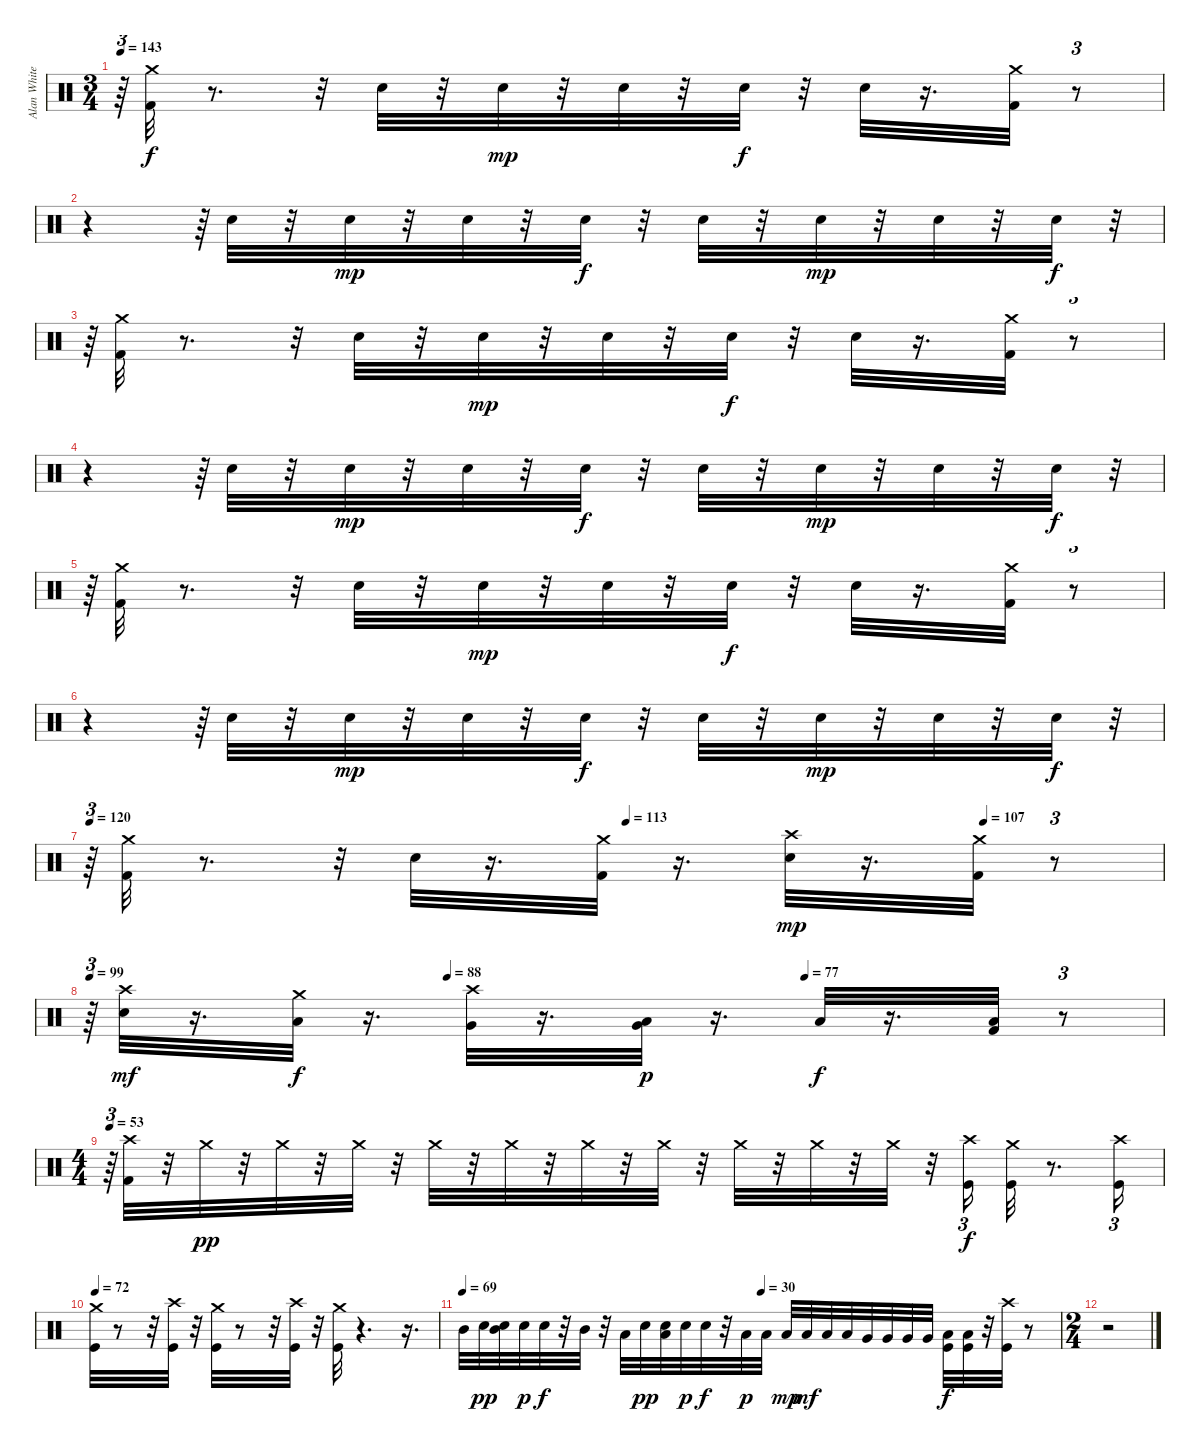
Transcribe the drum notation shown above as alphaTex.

\track ("Alan White" "Alan White") {instrument percussion}
\staff {score}
\articulation defaults
\ts (3 4)
\tempo 143
\clef neutral
\ks c
r.64{tu (3 2) dy f} ("Kick (hit) 2" "Crash medium (hit)").32 r.8{d} r.32 "Electric Snare (hit)".32 r.32 "Electric Snare (hit)".32{dy mp} r.32 "Electric Snare (hit)".32 r.32 "Electric Snare (hit)".32{dy f} r.32 "Electric Snare (hit)".32 r.16{d} ("Kick (hit) 2" "Crash medium (hit)").32 r.8{tu (3 2)} |
r.4 r.64{tu (3 2)} "Electric Snare (hit)".32 r.32 "Electric Snare (hit)".32{dy mp} r.32 "Electric Snare (hit)".32 r.32 "Electric Snare (hit)".32{dy f} r.32 "Electric Snare (hit)".32 r.32 "Electric Snare (hit)".32{dy mp} r.32 "Electric Snare (hit)".32 r.32 "Electric Snare (hit)".32{dy f} r.32{tu (3 2)} |
r.64{tu (3 2)} ("Kick (hit) 2" "Crash medium (hit)").32 r.8{d} r.32 "Electric Snare (hit)".32 r.32 "Electric Snare (hit)".32{dy mp} r.32 "Electric Snare (hit)".32 r.32 "Electric Snare (hit)".32{dy f} r.32 "Electric Snare (hit)".32 r.16{d} ("Kick (hit) 2" "Crash medium (hit)").32 r.8{tu (3 2)} |
r.4 r.64{tu (3 2)} "Electric Snare (hit)".32 r.32 "Electric Snare (hit)".32{dy mp} r.32 "Electric Snare (hit)".32 r.32 "Electric Snare (hit)".32{dy f} r.32 "Electric Snare (hit)".32 r.32 "Electric Snare (hit)".32{dy mp} r.32 "Electric Snare (hit)".32 r.32 "Electric Snare (hit)".32{dy f} r.32{tu (3 2)} |
r.64{tu (3 2)} ("Crash medium (hit)" "Kick (hit) 2").32 r.8{d} r.32 "Electric Snare (hit)".32 r.32 "Electric Snare (hit)".32{dy mp} r.32 "Electric Snare (hit)".32 r.32 "Electric Snare (hit)".32{dy f} r.32 "Electric Snare (hit)".32 r.16{d} ("Kick (hit) 2" "Crash medium (hit)").32 r.8{tu (3 2)} |
r.4 r.64{tu (3 2)} "Electric Snare (hit)".32 r.32 "Electric Snare (hit)".32{dy mp} r.32 "Electric Snare (hit)".32 r.32 "Electric Snare (hit)".32{dy f} r.32 "Electric Snare (hit)".32 r.32 "Electric Snare (hit)".32{dy mp} r.32 "Electric Snare (hit)".32 r.32 "Electric Snare (hit)".32{dy f} r.32{tu (3 2)} |
\tempo 120
\tempo (113 0.5)
\tempo (107 0.8333333333333334)
r.64{tu (3 2)} ("Kick (hit) 2" "Crash medium (hit)").32 r.8{d} r.32 "Electric Snare (hit)".32 r.16{d} ("Crash medium (hit)" "Kick (hit) 2").32 r.16{d} ("Crash high (hit)" "Electric Snare (hit)").32{dy mp} r.16{d} ("Kick (hit) 2" "Crash medium (hit)").32 r.8{tu (3 2)} |
\tempo 99
\tempo (88 0.3333333333333333)
\tempo (77 0.6666666666666666)
r.64{tu (3 2)} ("Crash high (hit)" "Electric Snare (hit)").32{dy mf} r.16{d} ("Crash medium (hit)" "Low Tom (hit)").32{dy f} r.16{d} ("Very Low Tom (hit)" "Crash high (hit)").32 r.16{d} ("Low Floor Tom (hit)" "Very Low Tom (hit)").32{dy p} r.16{d} "Low Floor Tom (hit)".32{dy f} r.16{d} ("Kick (hit) 2" "Low Floor Tom (hit)").32 r.8{tu (3 2)} |
\ts (4 4)
\tempo 53
r.64{tu (3 2)} ("Kick (hit) 2" "Crash high (hit)").32 r.32 "Crash medium (hit)".32{dy pp} r.32 "Crash medium (hit)".32 r.32 "Crash medium (hit)".32 r.32 "Crash medium (hit)".32 r.32 "Crash medium (hit)".32 r.32 "Crash medium (hit)".32 r.32 "Crash medium (hit)".32 r.32 "Crash medium (hit)".32 r.32 "Crash medium (hit)".32 r.32 "Crash medium (hit)".32 r.32 ("Crash high (hit)" "Kick (hit)").16{tu (3 2) dy f} ("Kick (hit)" "Crash medium (hit)").32 r.8{d} ("Kick (hit)" "Crash high (hit)").16{tu (3 2)} |
\tempo 72
("Kick (hit)" "Crash medium (hit)").32 r.8 r.32 ("Crash high (hit)" "Kick (hit)").32 r.32 ("Kick (hit)" "Crash medium (hit)").32 r.8 r.32 ("Crash high (hit)" "Kick (hit)").32 r.32 ("Crash medium (hit)" "Kick (hit)").32 r.4{d} r.16{d} |
\tempo 69
\tempo (30 0.5)
"Mid Tom (hit)".32 "Snare (hit) 2".32{dy pp} ("Mid Tom (hit)" "Snare (hit) 2").32 "Snare (hit) 2".32{dy p} "Snare (hit) 2".32{dy f} r.32 "Mid Tom (hit)".32 r.32 "Low Tom (hit)".32 "Snare (hit) 2".32{dy pp} ("Snare (hit) 2" "Low Tom (hit)").32 "Snare (hit) 2".32{dy p} "Snare (hit) 2".32{dy f} r.32 "Low Tom (hit)".32{dy p} "Low Tom (hit)".32 "Low Tom (hit)".32{dy mp} "Low Tom (hit)".32{dy mf} "Low Tom (hit)".32 "Low Tom (hit)".32 "Very Low Tom (hit)".32 "Very Low Tom (hit)".32 "Very Low Tom (hit)".32 "Very Low Tom (hit)".32 ("Low Floor Tom (hit)" "Kick (hit)").32{dy f} ("Low Floor Tom (hit)" "Kick (hit)").32 r.32 ("Crash high (hit)" "Kick (hit)").32 r.8 |
\ts (2 4)
r.2
